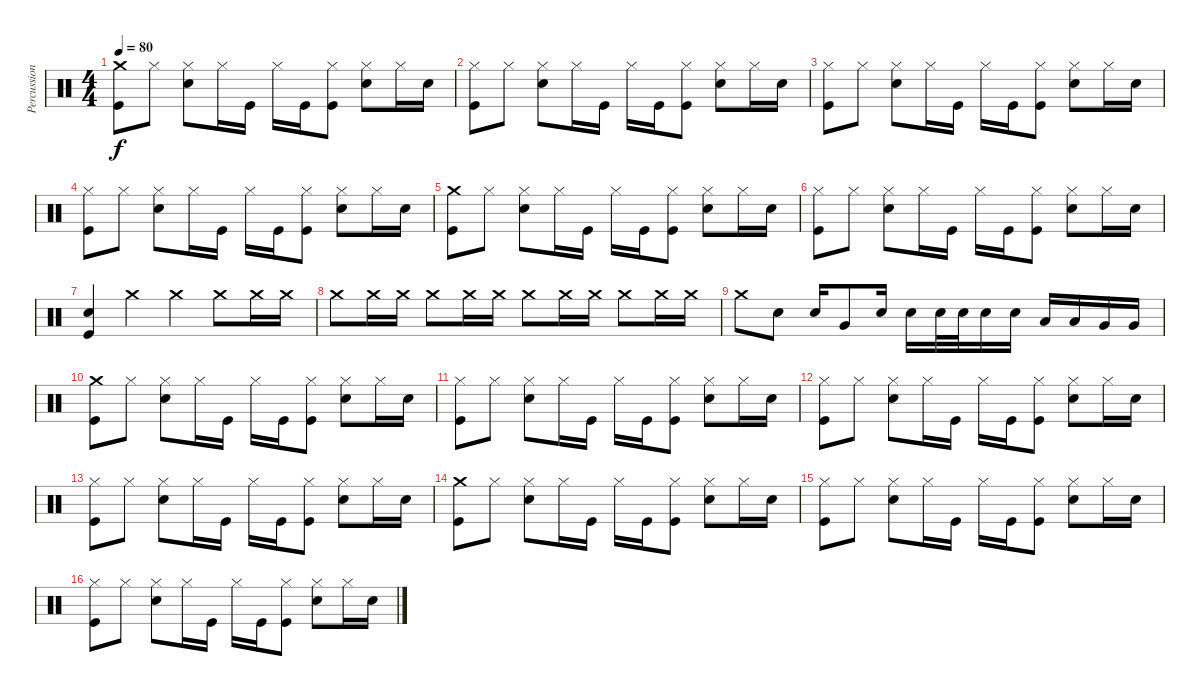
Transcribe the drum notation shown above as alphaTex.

\track ("Percussion" "Percussion") {instrument percussion}
\staff {score}
\articulation defaults
\ts (4 4)
\tempo 80
\clef neutral
\ks c
("Crash medium (hit)" "Kick (hit)").8{dy f} "Hi-Hat (closed)".8 ("Hi-Hat (closed)" "Snare (hit) 2").8 "Hi-Hat (closed)".16 "Kick (hit)".16 "Hi-Hat (closed)".16 "Kick (hit)".16 ("Hi-Hat (closed)" "Kick (hit)").8 ("Hi-Hat (closed)" "Snare (hit) 2").8 "Hi-Hat (closed)".16 "Snare (hit) 2".16 |
("Hi-Hat (closed)" "Kick (hit)").8 "Hi-Hat (closed)".8 ("Hi-Hat (closed)" "Snare (hit) 2").8 "Hi-Hat (closed)".16 "Kick (hit)".16 "Hi-Hat (closed)".16 "Kick (hit)".16 ("Hi-Hat (closed)" "Kick (hit)").8 ("Hi-Hat (closed)" "Snare (hit) 2").8 "Hi-Hat (closed)".16 "Snare (hit) 2".16 |
("Hi-Hat (closed)" "Kick (hit)").8 "Hi-Hat (closed)".8 ("Hi-Hat (closed)" "Snare (hit) 2").8 "Hi-Hat (closed)".16 "Kick (hit)".16 "Hi-Hat (closed)".16 "Kick (hit)".16 ("Hi-Hat (closed)" "Kick (hit)").8 ("Hi-Hat (closed)" "Snare (hit) 2").8 "Hi-Hat (closed)".16 "Snare (hit) 2".16 |
("Hi-Hat (closed)" "Kick (hit)").8 "Hi-Hat (closed)".8 ("Hi-Hat (closed)" "Snare (hit) 2").8 "Hi-Hat (closed)".16 "Kick (hit)".16 "Hi-Hat (closed)".16 "Kick (hit)".16 ("Hi-Hat (closed)" "Kick (hit)").8 ("Hi-Hat (closed)" "Snare (hit) 2").8 "Hi-Hat (closed)".16 "Snare (hit) 2".16 |
("Crash medium (hit)" "Kick (hit)").8 "Hi-Hat (closed)".8 ("Hi-Hat (closed)" "Snare (hit) 2").8 "Hi-Hat (closed)".16 "Kick (hit)".16 "Hi-Hat (closed)".16 "Kick (hit)".16 ("Hi-Hat (closed)" "Kick (hit)").8 ("Hi-Hat (closed)" "Snare (hit) 2").8 "Hi-Hat (closed)".16 "Snare (hit) 2".16 |
("Hi-Hat (closed)" "Kick (hit)").8 "Hi-Hat (closed)".8 ("Hi-Hat (closed)" "Snare (hit) 2").8 "Hi-Hat (closed)".16 "Kick (hit)".16 "Hi-Hat (closed)".16 "Kick (hit)".16 ("Hi-Hat (closed)" "Kick (hit)").8 ("Hi-Hat (closed)" "Snare (hit) 2").8 "Hi-Hat (closed)".16 "Snare (hit) 2".16 |
("Snare (hit) 2" "Kick (hit)").4 "Crash medium (hit)".4 "Crash medium (hit)".4 "Crash medium (hit)".8 "Crash medium (hit)".16 "Crash medium (hit)".16 |
"Crash medium (hit)".8 "Crash medium (hit)".16 "Crash medium (hit)".16 "Crash medium (hit)".8 "Crash medium (hit)".16 "Crash medium (hit)".16 "Crash medium (hit)".8 "Crash medium (hit)".16 "Crash medium (hit)".16 "Crash medium (hit)".8 "Crash medium (hit)".16 "Crash medium (hit)".16 |
"Crash medium (hit)".8 "Snare (hit) 2".8 "Snare (hit) 2".16 "Very Low Tom (hit)".8 "Snare (hit) 2".16 "Snare (hit) 2".16 "Snare (hit) 2".32 "Snare (hit) 2".32 "Snare (hit) 2".16 "Snare (hit) 2".16 "Low Tom (hit)".16 "Low Tom (hit)".16 "Very Low Tom (hit)".16 "Very Low Tom (hit)".16 |
("Crash medium (hit)" "Kick (hit)").8 "Hi-Hat (closed)".8 ("Hi-Hat (closed)" "Snare (hit) 2").8 "Hi-Hat (closed)".16 "Kick (hit)".16 "Hi-Hat (closed)".16 "Kick (hit)".16 ("Hi-Hat (closed)" "Kick (hit)").8 ("Hi-Hat (closed)" "Snare (hit) 2").8 "Hi-Hat (closed)".16 "Snare (hit) 2".16 |
("Hi-Hat (closed)" "Kick (hit)").8 "Hi-Hat (closed)".8 ("Hi-Hat (closed)" "Snare (hit) 2").8 "Hi-Hat (closed)".16 "Kick (hit)".16 "Hi-Hat (closed)".16 "Kick (hit)".16 ("Hi-Hat (closed)" "Kick (hit)").8 ("Hi-Hat (closed)" "Snare (hit) 2").8 "Hi-Hat (closed)".16 "Snare (hit) 2".16 |
("Hi-Hat (closed)" "Kick (hit)").8 "Hi-Hat (closed)".8 ("Hi-Hat (closed)" "Snare (hit) 2").8 "Hi-Hat (closed)".16 "Kick (hit)".16 "Hi-Hat (closed)".16 "Kick (hit)".16 ("Hi-Hat (closed)" "Kick (hit)").8 ("Hi-Hat (closed)" "Snare (hit) 2").8 "Hi-Hat (closed)".16 "Snare (hit) 2".16 |
("Hi-Hat (closed)" "Kick (hit)").8 "Hi-Hat (closed)".8 ("Hi-Hat (closed)" "Snare (hit) 2").8 "Hi-Hat (closed)".16 "Kick (hit)".16 "Hi-Hat (closed)".16 "Kick (hit)".16 ("Hi-Hat (closed)" "Kick (hit)").8 ("Hi-Hat (closed)" "Snare (hit) 2").8 "Hi-Hat (closed)".16 "Snare (hit) 2".16 |
("Crash medium (hit)" "Kick (hit)").8 "Hi-Hat (closed)".8 ("Hi-Hat (closed)" "Snare (hit) 2").8 "Hi-Hat (closed)".16 "Kick (hit)".16 "Hi-Hat (closed)".16 "Kick (hit)".16 ("Hi-Hat (closed)" "Kick (hit)").8 ("Hi-Hat (closed)" "Snare (hit) 2").8 "Hi-Hat (closed)".16 "Snare (hit) 2".16 |
("Hi-Hat (closed)" "Kick (hit)").8 "Hi-Hat (closed)".8 ("Hi-Hat (closed)" "Snare (hit) 2").8 "Hi-Hat (closed)".16 "Kick (hit)".16 "Hi-Hat (closed)".16 "Kick (hit)".16 ("Hi-Hat (closed)" "Kick (hit)").8 ("Hi-Hat (closed)" "Snare (hit) 2").8 "Hi-Hat (closed)".16 "Snare (hit) 2".16 |
("Hi-Hat (closed)" "Kick (hit)").8 "Hi-Hat (closed)".8 ("Hi-Hat (closed)" "Snare (hit) 2").8 "Hi-Hat (closed)".16 "Kick (hit)".16 "Hi-Hat (closed)".16 "Kick (hit)".16 ("Hi-Hat (closed)" "Kick (hit)").8 ("Hi-Hat (closed)" "Snare (hit) 2").8 "Hi-Hat (closed)".16 "Snare (hit) 2".16
